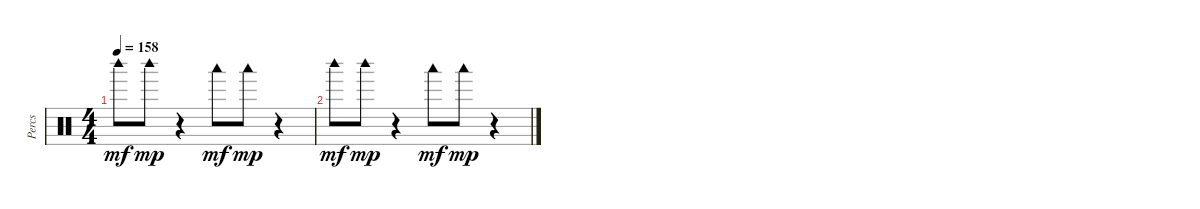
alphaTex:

\track ("Percs" "Percs") {instrument percussion}
\staff {score}
\articulation defaults
\ts (4 4)
\tempo 158
\clef neutral
\ks c "Woodblock high (hit)".8{dy mf} "Woodblock high (hit)".8{dy mp}
r.4 "Woodblock low (hit)".8{dy mf} "Woodblock low (hit)".8{dy mp} r.4 |
"Woodblock high (hit)".8{dy mf} "Woodblock high (hit)".8{dy mp} r.4 "Woodblock low (hit)".8{dy mf} "Woodblock low (hit)".8{dy mp} r.4
